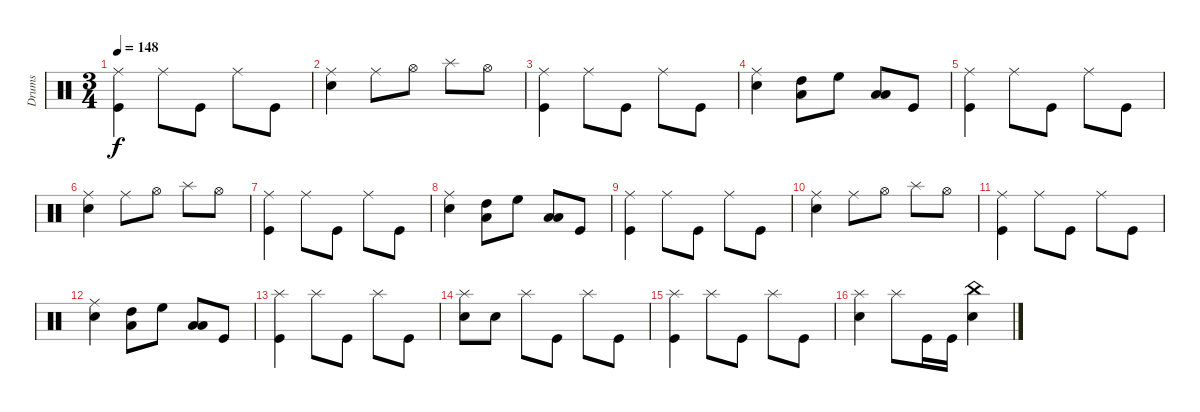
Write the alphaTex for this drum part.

\track ("Drums" "Drums") {instrument percussion}
\staff {score}
\articulation defaults
\ts (3 4)
\tempo 148
\clef neutral
\ks c
("Ride (middle)" "Kick (hit)").4{dy f} "Ride (middle)".8 "Kick (hit)".8 "Ride (middle)".8 "Kick (hit)".8 |
("Ride (middle)" "Snare (hit) 2").4 "Ride (middle)".8 "Hi-Hat (open)".8 "Splash (hit)".8 "Hi-Hat (open)".8 |
("Ride (middle)" "Kick (hit)").4 "Ride (middle)".8 "Kick (hit)".8 "Ride (middle)".8 "Kick (hit)".8 |
("Ride (middle)" "Snare (hit) 2").4 ("Low Floor Tom (hit)" "High Tom (hit)").8 "High Floor Tom (hit)".8 ("Low Floor Tom (hit)" "Low Tom (hit)").8 "Kick (hit)".8 |
("Ride (middle)" "Kick (hit)").4 "Ride (middle)".8 "Kick (hit)".8 "Ride (middle)".8 "Kick (hit)".8 |
("Ride (middle)" "Snare (hit) 2").4 "Ride (middle)".8 "Hi-Hat (open)".8 "Splash (hit)".8 "Hi-Hat (open)".8 |
("Ride (middle)" "Kick (hit)").4 "Ride (middle)".8 "Kick (hit)".8 "Ride (middle)".8 "Kick (hit)".8 |
("Ride (middle)" "Snare (hit) 2").4 ("Low Floor Tom (hit)" "High Tom (hit)").8 "High Floor Tom (hit)".8 ("Low Floor Tom (hit)" "Low Tom (hit)").8 "Kick (hit)".8 |
("Ride (middle)" "Kick (hit)").4 "Ride (middle)".8 "Kick (hit)".8 "Ride (middle)".8 "Kick (hit)".8 |
("Ride (middle)" "Snare (hit) 2").4 "Ride (middle)".8 "Hi-Hat (open)".8 "Splash (hit)".8 "Hi-Hat (open)".8 |
("Ride (middle)" "Kick (hit)").4 "Ride (middle)".8 "Kick (hit)".8 "Ride (middle)".8 "Kick (hit)".8 |
("Ride (middle)" "Snare (hit) 2").4 ("Low Floor Tom (hit)" "High Tom (hit)").8 "High Floor Tom (hit)".8 ("Low Floor Tom (hit)" "Low Tom (hit)").8 "Kick (hit)".8 |
("Splash (hit)" "Kick (hit)").4 "Splash (hit)".8 "Kick (hit)".8 "Splash (hit)".8 "Kick (hit)".8 |
("Splash (hit)" "Snare (hit) 2").8 "Snare (hit) 2".8 "Splash (hit)".8 "Kick (hit)".8 "Splash (hit)".8 "Kick (hit)".8 |
("Splash (hit)" "Kick (hit)").4 "Splash (hit)".8 "Kick (hit)".8 "Splash (hit)".8 "Kick (hit)".8 |
("Splash (hit)" "Snare (hit) 2").4 "Splash (hit)".8 "Kick (hit)".16 "Kick (hit)".16 ("China (hit)" "Snare (hit) 2").4
